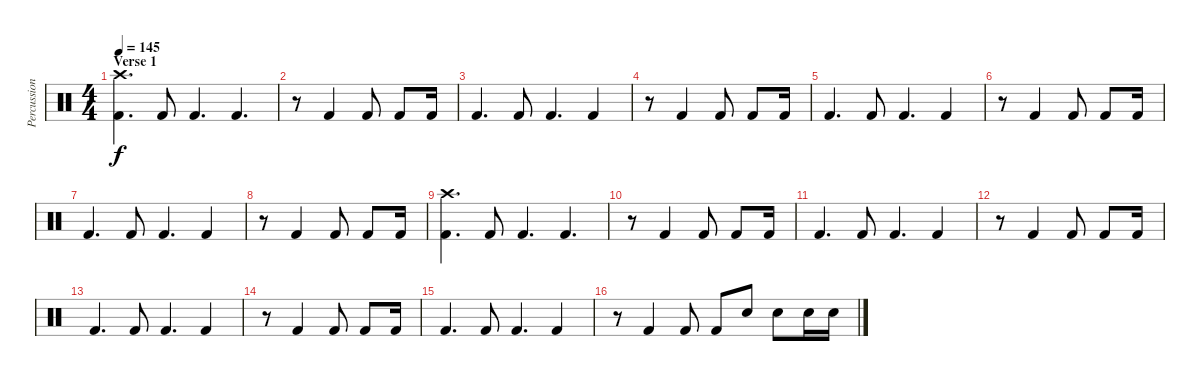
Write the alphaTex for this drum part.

\track ("Percussion" "Percussion") {instrument percussion}
\staff {score}
\articulation defaults
\ts (4 4)
\section ("" "Verse 1")
\tempo 145
\clef neutral
\ks c
("Crash high (hit)" "Kick (hit) 2").4{d dy f} "Kick (hit) 2".8 "Kick (hit) 2".4{d} "Kick (hit) 2".4{d} |
r.8 "Kick (hit) 2".4 "Kick (hit) 2".8 "Kick (hit) 2".8 "Kick (hit) 2".16 |
"Kick (hit) 2".4{d} "Kick (hit) 2".8 "Kick (hit) 2".4{d} "Kick (hit) 2".4 |
r.8 "Kick (hit) 2".4 "Kick (hit) 2".8 "Kick (hit) 2".8 "Kick (hit) 2".16 |
"Kick (hit) 2".4{d} "Kick (hit) 2".8 "Kick (hit) 2".4{d} "Kick (hit) 2".4 |
r.8 "Kick (hit) 2".4 "Kick (hit) 2".8 "Kick (hit) 2".8 "Kick (hit) 2".16 |
"Kick (hit) 2".4{d} "Kick (hit) 2".8 "Kick (hit) 2".4{d} "Kick (hit) 2".4 |
r.8 "Kick (hit) 2".4 "Kick (hit) 2".8 "Kick (hit) 2".8 "Kick (hit) 2".16 |
("Crash high (hit)" "Kick (hit) 2").4{d} "Kick (hit) 2".8 "Kick (hit) 2".4{d} "Kick (hit) 2".4{d} |
r.8 "Kick (hit) 2".4 "Kick (hit) 2".8 "Kick (hit) 2".8 "Kick (hit) 2".16 |
"Kick (hit) 2".4{d} "Kick (hit) 2".8 "Kick (hit) 2".4{d} "Kick (hit) 2".4 |
r.8 "Kick (hit) 2".4 "Kick (hit) 2".8 "Kick (hit) 2".8 "Kick (hit) 2".16 |
"Kick (hit) 2".4{d} "Kick (hit) 2".8 "Kick (hit) 2".4{d} "Kick (hit) 2".4 |
r.8 "Kick (hit) 2".4 "Kick (hit) 2".8 "Kick (hit) 2".8 "Kick (hit) 2".16 |
"Kick (hit) 2".4{d} "Kick (hit) 2".8 "Kick (hit) 2".4{d} "Kick (hit) 2".4 |
r.8 "Kick (hit) 2".4 "Kick (hit) 2".8 "Kick (hit) 2".8 "Electric Snare (hit)".8 "Electric Snare (hit)".8 "Electric Snare (hit)".16 "Electric Snare (hit)".16
